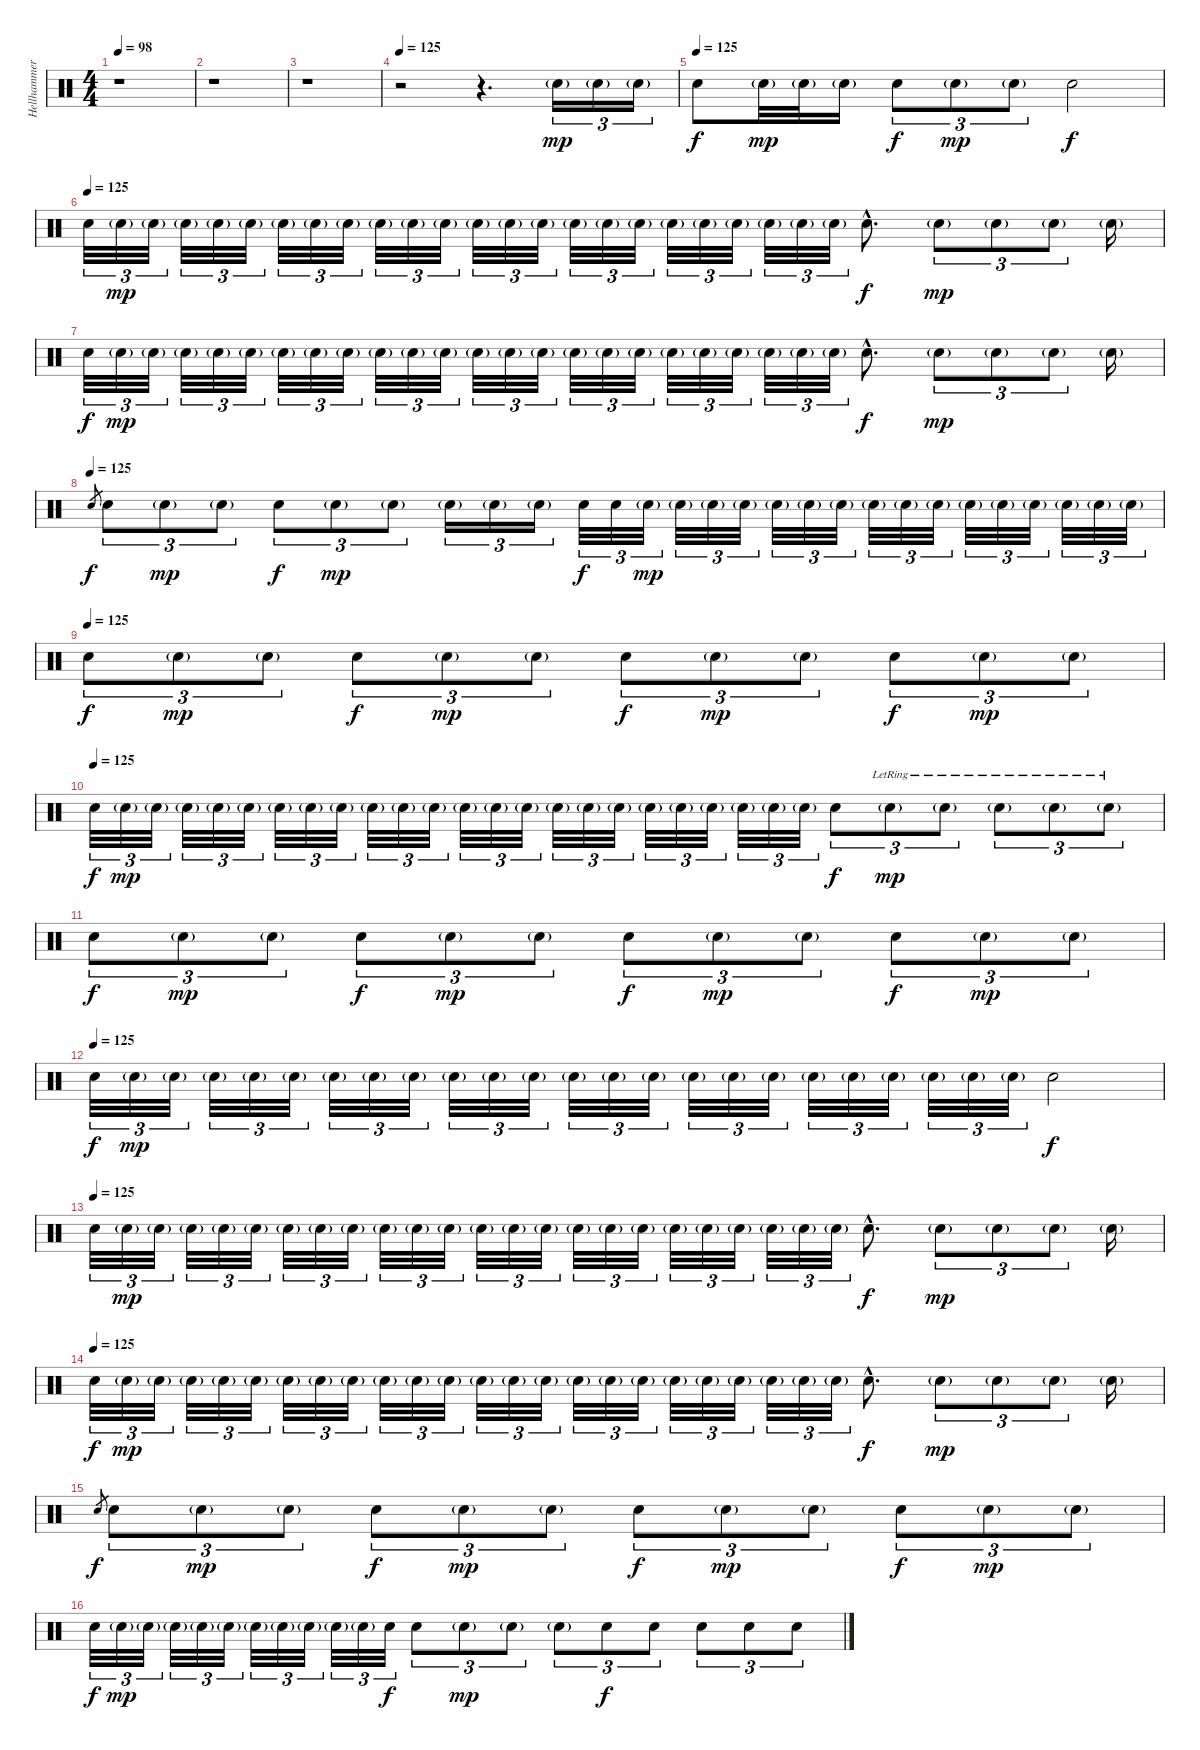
\track ("Hellhammer (Drums)" "Hellhammer") {instrument percussion}
\staff {score}
\articulation defaults
\ts (4 4)
\tempo 98
\tempo 125
\tempo 98
\clef neutral
\ks c
r.1{dy mp} |
r.1 |
r.1 |
\tempo 125
r.2{volume 10} r.4{d} "Electric Snare (hit)"{g}.16{tu (3 2)} "Electric Snare (hit)"{g}.16{tu (3 2)} "Electric Snare (hit)"{g}.16{tu (3 2)} |
\tempo (125)
"Electric Snare (hit)".8{dy f} "Electric Snare (hit)"{g}.32{dy mp} "Electric Snare (hit)"{g}.32 "Electric Snare (hit)"{g}.16 "Electric Snare (hit)".8{tu (3 2) dy f} "Electric Snare (hit)"{g}.8{tu (3 2) dy mp} "Electric Snare (hit)"{g}.8{tu (3 2)} "Electric Snare (hit)".2{dy f} |
\tempo (125)
"Electric Snare (hit)".32{tu (3 2)} "Electric Snare (hit)"{g}.32{tu (3 2) dy mp} "Electric Snare (hit)"{g}.32{tu (3 2)} "Electric Snare (hit)"{g}.32{tu (3 2)} "Electric Snare (hit)"{g}.32{tu (3 2)} "Electric Snare (hit)"{g}.32{tu (3 2)} "Electric Snare (hit)"{g}.32{tu (3 2)} "Electric Snare (hit)"{g}.32{tu (3 2)} "Electric Snare (hit)"{g}.32{tu (3 2)} "Electric Snare (hit)"{g}.32{tu (3 2)} "Electric Snare (hit)"{g}.32{tu (3 2)} "Electric Snare (hit)"{g}.32{tu (3 2)} "Electric Snare (hit)"{g}.32{tu (3 2)} "Electric Snare (hit)"{g}.32{tu (3 2)} "Electric Snare (hit)"{g}.32{tu (3 2)} "Electric Snare (hit)"{g}.32{tu (3 2)} "Electric Snare (hit)"{g}.32{tu (3 2)} "Electric Snare (hit)"{g}.32{tu (3 2)} "Electric Snare (hit)"{g}.32{tu (3 2)} "Electric Snare (hit)"{g}.32{tu (3 2)} "Electric Snare (hit)"{g}.32{tu (3 2)} "Electric Snare (hit)"{g}.32{tu (3 2)} "Electric Snare (hit)"{g}.32{tu (3 2)} "Electric Snare (hit)"{g}.32{tu (3 2)} "Electric Snare (hit)"{hac}.8{d dy f} "Electric Snare (hit)"{g}.8{tu (3 2) dy mp} "Electric Snare (hit)"{g}.8{tu (3 2)} "Electric Snare (hit)"{g}.8{tu (3 2)} "Electric Snare (hit)"{g}.16 |
"Electric Snare (hit)".32{tu (3 2) dy f} "Electric Snare (hit)"{g}.32{tu (3 2) dy mp} "Electric Snare (hit)"{g}.32{tu (3 2)} "Electric Snare (hit)"{g}.32{tu (3 2)} "Electric Snare (hit)"{g}.32{tu (3 2)} "Electric Snare (hit)"{g}.32{tu (3 2)} "Electric Snare (hit)"{g}.32{tu (3 2)} "Electric Snare (hit)"{g}.32{tu (3 2)} "Electric Snare (hit)"{g}.32{tu (3 2)} "Electric Snare (hit)"{g}.32{tu (3 2)} "Electric Snare (hit)"{g}.32{tu (3 2)} "Electric Snare (hit)"{g}.32{tu (3 2)} "Electric Snare (hit)"{g}.32{tu (3 2)} "Electric Snare (hit)"{g}.32{tu (3 2)} "Electric Snare (hit)"{g}.32{tu (3 2)} "Electric Snare (hit)"{g}.32{tu (3 2)} "Electric Snare (hit)"{g}.32{tu (3 2)} "Electric Snare (hit)"{g}.32{tu (3 2)} "Electric Snare (hit)"{g}.32{tu (3 2)} "Electric Snare (hit)"{g}.32{tu (3 2)} "Electric Snare (hit)"{g}.32{tu (3 2)} "Electric Snare (hit)"{g}.32{tu (3 2)} "Electric Snare (hit)"{g}.32{tu (3 2)} "Electric Snare (hit)"{g}.32{tu (3 2)} "Electric Snare (hit)"{hac}.8{d dy f} "Electric Snare (hit)"{g}.8{tu (3 2) dy mp} "Electric Snare (hit)"{g}.8{tu (3 2)} "Electric Snare (hit)"{g}.8{tu (3 2)} "Electric Snare (hit)"{g}.16 |
\tempo (125)
"Electric Snare (hit)".8{gr dy f} "Electric Snare (hit)".8{tu (3 2) volume 10} "Electric Snare (hit)"{g}.8{tu (3 2) dy mp} "Electric Snare (hit)"{g}.8{tu (3 2)} "Electric Snare (hit)".8{tu (3 2) dy f} "Electric Snare (hit)"{g}.8{tu (3 2) dy mp} "Electric Snare (hit)"{g}.8{tu (3 2)} "Electric Snare (hit)"{g}.16{tu (3 2)} "Electric Snare (hit)"{g}.16{tu (3 2)} "Electric Snare (hit)"{g}.16{tu (3 2)} "Electric Snare (hit)".32{tu (3 2) dy f} "Electric Snare (hit)".32{tu (3 2)} "Electric Snare (hit)"{g}.32{tu (3 2) dy mp} "Electric Snare (hit)"{g}.32{tu (3 2)} "Electric Snare (hit)"{g}.32{tu (3 2)} "Electric Snare (hit)"{g}.32{tu (3 2)} "Electric Snare (hit)"{g}.32{tu (3 2)} "Electric Snare (hit)"{g}.32{tu (3 2)} "Electric Snare (hit)"{g}.32{tu (3 2)} "Electric Snare (hit)"{g}.32{tu (3 2)} "Electric Snare (hit)"{g}.32{tu (3 2)} "Electric Snare (hit)"{g}.32{tu (3 2)} "Electric Snare (hit)"{g}.32{tu (3 2)} "Electric Snare (hit)"{g}.32{tu (3 2)} "Electric Snare (hit)"{g}.32{tu (3 2)} "Electric Snare (hit)"{g}.32{tu (3 2)} "Electric Snare (hit)"{g}.32{tu (3 2)} "Electric Snare (hit)"{g}.32{tu (3 2)} |
\tempo (125)
"Electric Snare (hit)".8{tu (3 2) dy f} "Electric Snare (hit)"{g}.8{tu (3 2) dy mp} "Electric Snare (hit)"{g}.8{tu (3 2)} "Electric Snare (hit)".8{tu (3 2) dy f} "Electric Snare (hit)"{g}.8{tu (3 2) dy mp} "Electric Snare (hit)"{g}.8{tu (3 2)} "Electric Snare (hit)".8{tu (3 2) dy f} "Electric Snare (hit)"{g}.8{tu (3 2) dy mp} "Electric Snare (hit)"{g}.8{tu (3 2)} "Electric Snare (hit)".8{tu (3 2) dy f} "Electric Snare (hit)"{g}.8{tu (3 2) dy mp} "Electric Snare (hit)"{g}.8{tu (3 2)} |
\tempo (125)
"Electric Snare (hit)".32{tu (3 2) dy f} "Electric Snare (hit)"{g}.32{tu (3 2) dy mp} "Electric Snare (hit)"{g}.32{tu (3 2)} "Electric Snare (hit)"{g}.32{tu (3 2)} "Electric Snare (hit)"{g}.32{tu (3 2)} "Electric Snare (hit)"{g}.32{tu (3 2)} "Electric Snare (hit)"{g}.32{tu (3 2)} "Electric Snare (hit)"{g}.32{tu (3 2)} "Electric Snare (hit)"{g}.32{tu (3 2)} "Electric Snare (hit)"{g}.32{tu (3 2)} "Electric Snare (hit)"{g}.32{tu (3 2)} "Electric Snare (hit)"{g}.32{tu (3 2)} "Electric Snare (hit)"{g}.32{tu (3 2)} "Electric Snare (hit)"{g}.32{tu (3 2)} "Electric Snare (hit)"{g}.32{tu (3 2)} "Electric Snare (hit)"{g}.32{tu (3 2)} "Electric Snare (hit)"{g}.32{tu (3 2)} "Electric Snare (hit)"{g}.32{tu (3 2)} "Electric Snare (hit)"{g}.32{tu (3 2)} "Electric Snare (hit)"{g}.32{tu (3 2)} "Electric Snare (hit)"{g}.32{tu (3 2)} "Electric Snare (hit)"{g}.32{tu (3 2)} "Electric Snare (hit)"{g}.32{tu (3 2)} "Electric Snare (hit)"{g}.32{tu (3 2)} "Electric Snare (hit)".8{tu (3 2) dy f} "Electric Snare (hit)"{g lr}.8{tu (3 2) dy mp} "Electric Snare (hit)"{g lr}.8{tu (3 2)} "Electric Snare (hit)"{g lr}.8{tu (3 2)} "Electric Snare (hit)"{g lr}.8{tu (3 2)} "Electric Snare (hit)"{g lr}.8{tu (3 2)} |
"Electric Snare (hit)".8{tu (3 2) dy f} "Electric Snare (hit)"{g}.8{tu (3 2) dy mp} "Electric Snare (hit)"{g}.8{tu (3 2)} "Electric Snare (hit)".8{tu (3 2) dy f} "Electric Snare (hit)"{g}.8{tu (3 2) dy mp} "Electric Snare (hit)"{g}.8{tu (3 2)} "Electric Snare (hit)".8{tu (3 2) dy f} "Electric Snare (hit)"{g}.8{tu (3 2) dy mp} "Electric Snare (hit)"{g}.8{tu (3 2)} "Electric Snare (hit)".8{tu (3 2) dy f} "Electric Snare (hit)"{g}.8{tu (3 2) dy mp} "Electric Snare (hit)"{g}.8{tu (3 2)} |
\tempo (125)
"Electric Snare (hit)".32{tu (3 2) dy f volume 10} "Electric Snare (hit)"{g}.32{tu (3 2) dy mp} "Electric Snare (hit)"{g}.32{tu (3 2)} "Electric Snare (hit)"{g}.32{tu (3 2)} "Electric Snare (hit)"{g}.32{tu (3 2)} "Electric Snare (hit)"{g}.32{tu (3 2)} "Electric Snare (hit)"{g}.32{tu (3 2)} "Electric Snare (hit)"{g}.32{tu (3 2)} "Electric Snare (hit)"{g}.32{tu (3 2)} "Electric Snare (hit)"{g}.32{tu (3 2)} "Electric Snare (hit)"{g}.32{tu (3 2)} "Electric Snare (hit)"{g}.32{tu (3 2)} "Electric Snare (hit)"{g}.32{tu (3 2)} "Electric Snare (hit)"{g}.32{tu (3 2)} "Electric Snare (hit)"{g}.32{tu (3 2)} "Electric Snare (hit)"{g}.32{tu (3 2)} "Electric Snare (hit)"{g}.32{tu (3 2)} "Electric Snare (hit)"{g}.32{tu (3 2)} "Electric Snare (hit)"{g}.32{tu (3 2)} "Electric Snare (hit)"{g}.32{tu (3 2)} "Electric Snare (hit)"{g}.32{tu (3 2)} "Electric Snare (hit)"{g}.32{tu (3 2)} "Electric Snare (hit)"{g}.32{tu (3 2)} "Electric Snare (hit)"{g}.32{tu (3 2)} "Electric Snare (hit)".2{dy f} |
\tempo (125)
"Electric Snare (hit)".32{tu (3 2)} "Electric Snare (hit)"{g}.32{tu (3 2) dy mp} "Electric Snare (hit)"{g}.32{tu (3 2)} "Electric Snare (hit)"{g}.32{tu (3 2)} "Electric Snare (hit)"{g}.32{tu (3 2)} "Electric Snare (hit)"{g}.32{tu (3 2)} "Electric Snare (hit)"{g}.32{tu (3 2)} "Electric Snare (hit)"{g}.32{tu (3 2)} "Electric Snare (hit)"{g}.32{tu (3 2)} "Electric Snare (hit)"{g}.32{tu (3 2)} "Electric Snare (hit)"{g}.32{tu (3 2)} "Electric Snare (hit)"{g}.32{tu (3 2)} "Electric Snare (hit)"{g}.32{tu (3 2)} "Electric Snare (hit)"{g}.32{tu (3 2)} "Electric Snare (hit)"{g}.32{tu (3 2)} "Electric Snare (hit)"{g}.32{tu (3 2)} "Electric Snare (hit)"{g}.32{tu (3 2)} "Electric Snare (hit)"{g}.32{tu (3 2)} "Electric Snare (hit)"{g}.32{tu (3 2)} "Electric Snare (hit)"{g}.32{tu (3 2)} "Electric Snare (hit)"{g}.32{tu (3 2)} "Electric Snare (hit)"{g}.32{tu (3 2)} "Electric Snare (hit)"{g}.32{tu (3 2)} "Electric Snare (hit)"{g}.32{tu (3 2)} "Electric Snare (hit)"{hac}.8{d dy f} "Electric Snare (hit)"{g}.8{tu (3 2) dy mp} "Electric Snare (hit)"{g}.8{tu (3 2)} "Electric Snare (hit)"{g}.8{tu (3 2)} "Electric Snare (hit)"{g}.16 |
\tempo (125)
"Electric Snare (hit)".32{tu (3 2) dy f} "Electric Snare (hit)"{g}.32{tu (3 2) dy mp} "Electric Snare (hit)"{g}.32{tu (3 2)} "Electric Snare (hit)"{g}.32{tu (3 2)} "Electric Snare (hit)"{g}.32{tu (3 2)} "Electric Snare (hit)"{g}.32{tu (3 2)} "Electric Snare (hit)"{g}.32{tu (3 2)} "Electric Snare (hit)"{g}.32{tu (3 2)} "Electric Snare (hit)"{g}.32{tu (3 2)} "Electric Snare (hit)"{g}.32{tu (3 2)} "Electric Snare (hit)"{g}.32{tu (3 2)} "Electric Snare (hit)"{g}.32{tu (3 2)} "Electric Snare (hit)"{g}.32{tu (3 2)} "Electric Snare (hit)"{g}.32{tu (3 2)} "Electric Snare (hit)"{g}.32{tu (3 2)} "Electric Snare (hit)"{g}.32{tu (3 2)} "Electric Snare (hit)"{g}.32{tu (3 2)} "Electric Snare (hit)"{g}.32{tu (3 2)} "Electric Snare (hit)"{g}.32{tu (3 2)} "Electric Snare (hit)"{g}.32{tu (3 2)} "Electric Snare (hit)"{g}.32{tu (3 2)} "Electric Snare (hit)"{g}.32{tu (3 2)} "Electric Snare (hit)"{g}.32{tu (3 2)} "Electric Snare (hit)"{g}.32{tu (3 2)} "Electric Snare (hit)"{hac}.8{d dy f} "Electric Snare (hit)"{g}.8{tu (3 2) dy mp} "Electric Snare (hit)"{g}.8{tu (3 2)} "Electric Snare (hit)"{g}.8{tu (3 2)} "Electric Snare (hit)"{g}.16 |
"Electric Snare (hit)".8{gr dy f} "Electric Snare (hit)".8{tu (3 2)} "Electric Snare (hit)"{g}.8{tu (3 2) dy mp} "Electric Snare (hit)"{g}.8{tu (3 2)} "Electric Snare (hit)".8{tu (3 2) dy f} "Electric Snare (hit)"{g}.8{tu (3 2) dy mp} "Electric Snare (hit)"{g}.8{tu (3 2)} "Electric Snare (hit)".8{tu (3 2) dy f} "Electric Snare (hit)"{g}.8{tu (3 2) dy mp} "Electric Snare (hit)"{g}.8{tu (3 2)} "Electric Snare (hit)".8{tu (3 2) dy f} "Electric Snare (hit)"{g}.8{tu (3 2) dy mp} "Electric Snare (hit)"{g}.8{tu (3 2)} |
"Electric Snare (hit)".32{tu (3 2) dy f} "Electric Snare (hit)"{g}.32{tu (3 2) dy mp} "Electric Snare (hit)"{g}.32{tu (3 2)} "Electric Snare (hit)"{g}.32{tu (3 2)} "Electric Snare (hit)"{g}.32{tu (3 2)} "Electric Snare (hit)"{g}.32{tu (3 2)} "Electric Snare (hit)"{g}.32{tu (3 2)} "Electric Snare (hit)"{g}.32{tu (3 2)} "Electric Snare (hit)"{g}.32{tu (3 2)} "Electric Snare (hit)"{g}.32{tu (3 2)} "Electric Snare (hit)"{g}.32{tu (3 2)} "Electric Snare (hit)".32{tu (3 2) dy f} "Electric Snare (hit)".8{tu (3 2)} "Electric Snare (hit)"{g}.8{tu (3 2) dy mp} "Electric Snare (hit)"{g}.8{tu (3 2)} "Electric Snare (hit)"{g}.8{tu (3 2) volume 12} "Electric Snare (hit)".8{tu (3 2) dy f} "Electric Snare (hit)".8{tu (3 2)} "Electric Snare (hit)".8{tu (3 2)} "Electric Snare (hit)".8{tu (3 2)} "Electric Snare (hit)".8{tu (3 2)}
